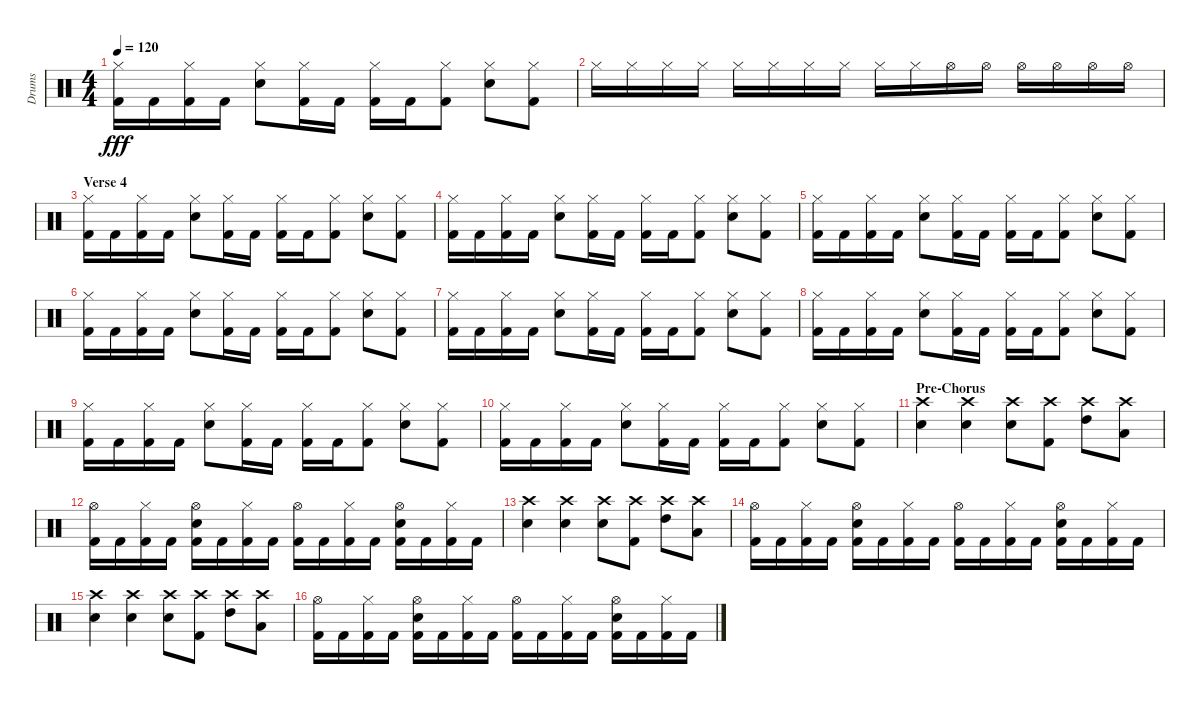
\track ("Drums" "Drums") {instrument percussion}
\staff {score}
\articulation defaults
\ts (4 4)
\tempo 120
\clef neutral
\ks c
("Hi-Hat (closed)" "Kick (hit) 2").16{dy fff} "Kick (hit) 2".16 ("Hi-Hat (closed)" "Kick (hit) 2").16 "Kick (hit) 2".16 ("Hi-Hat (closed)" "Electric Snare (hit)").8 ("Hi-Hat (closed)" "Kick (hit) 2").16 "Kick (hit) 2".16 ("Hi-Hat (closed)" "Kick (hit) 2").16 "Kick (hit) 2".16 ("Hi-Hat (closed)" "Kick (hit) 2").8 ("Hi-Hat (closed)" "Electric Snare (hit)").8 ("Hi-Hat (closed)" "Kick (hit) 2").8 |
"Hi-Hat (closed)".16 "Hi-Hat (closed)".16 "Hi-Hat (closed)".16 "Hi-Hat (closed)".16 "Hi-Hat (closed)".16 "Hi-Hat (closed)".16 "Hi-Hat (closed)".16 "Hi-Hat (closed)".16 "Hi-Hat (closed)".16 "Hi-Hat (closed)".16 "Hi-Hat (open)".16 "Hi-Hat (open)".16 "Hi-Hat (open)".16 "Hi-Hat (open)".16 "Hi-Hat (open)".16 "Hi-Hat (open)".16 |
\section ("" "Verse 4")
("Hi-Hat (closed)" "Kick (hit) 2").16 "Kick (hit) 2".16 ("Hi-Hat (closed)" "Kick (hit) 2").16 "Kick (hit) 2".16 ("Hi-Hat (closed)" "Electric Snare (hit)").8 ("Hi-Hat (closed)" "Kick (hit) 2").16 "Kick (hit) 2".16 ("Hi-Hat (closed)" "Kick (hit) 2").16 "Kick (hit) 2".16 ("Hi-Hat (closed)" "Kick (hit) 2").8 ("Hi-Hat (closed)" "Electric Snare (hit)").8 ("Hi-Hat (closed)" "Kick (hit) 2").8 |
("Hi-Hat (closed)" "Kick (hit) 2").16 "Kick (hit) 2".16 ("Hi-Hat (closed)" "Kick (hit) 2").16 "Kick (hit) 2".16 ("Hi-Hat (closed)" "Electric Snare (hit)").8 ("Hi-Hat (closed)" "Kick (hit) 2").16 "Kick (hit) 2".16 ("Hi-Hat (closed)" "Kick (hit) 2").16 "Kick (hit) 2".16 ("Hi-Hat (closed)" "Kick (hit) 2").8 ("Hi-Hat (closed)" "Electric Snare (hit)").8 ("Hi-Hat (closed)" "Kick (hit) 2").8 |
("Hi-Hat (closed)" "Kick (hit) 2").16 "Kick (hit) 2".16 ("Hi-Hat (closed)" "Kick (hit) 2").16 "Kick (hit) 2".16 ("Hi-Hat (closed)" "Electric Snare (hit)").8 ("Hi-Hat (closed)" "Kick (hit) 2").16 "Kick (hit) 2".16 ("Hi-Hat (closed)" "Kick (hit) 2").16 "Kick (hit) 2".16 ("Hi-Hat (closed)" "Kick (hit) 2").8 ("Hi-Hat (closed)" "Electric Snare (hit)").8 ("Hi-Hat (closed)" "Kick (hit) 2").8 |
("Hi-Hat (closed)" "Kick (hit) 2").16 "Kick (hit) 2".16 ("Hi-Hat (closed)" "Kick (hit) 2").16 "Kick (hit) 2".16 ("Hi-Hat (closed)" "Electric Snare (hit)").8 ("Hi-Hat (closed)" "Kick (hit) 2").16 "Kick (hit) 2".16 ("Hi-Hat (closed)" "Kick (hit) 2").16 "Kick (hit) 2".16 ("Hi-Hat (closed)" "Kick (hit) 2").8 ("Hi-Hat (closed)" "Electric Snare (hit)").8 ("Hi-Hat (closed)" "Kick (hit) 2").8 |
("Hi-Hat (closed)" "Kick (hit) 2").16 "Kick (hit) 2".16 ("Hi-Hat (closed)" "Kick (hit) 2").16 "Kick (hit) 2".16 ("Hi-Hat (closed)" "Electric Snare (hit)").8 ("Hi-Hat (closed)" "Kick (hit) 2").16 "Kick (hit) 2".16 ("Hi-Hat (closed)" "Kick (hit) 2").16 "Kick (hit) 2".16 ("Hi-Hat (closed)" "Kick (hit) 2").8 ("Hi-Hat (closed)" "Electric Snare (hit)").8 ("Hi-Hat (closed)" "Kick (hit) 2").8 |
("Hi-Hat (closed)" "Kick (hit) 2").16 "Kick (hit) 2".16 ("Hi-Hat (closed)" "Kick (hit) 2").16 "Kick (hit) 2".16 ("Hi-Hat (closed)" "Electric Snare (hit)").8 ("Hi-Hat (closed)" "Kick (hit) 2").16 "Kick (hit) 2".16 ("Hi-Hat (closed)" "Kick (hit) 2").16 "Kick (hit) 2".16 ("Hi-Hat (closed)" "Kick (hit) 2").8 ("Hi-Hat (closed)" "Electric Snare (hit)").8 ("Hi-Hat (closed)" "Kick (hit) 2").8 |
("Hi-Hat (closed)" "Kick (hit) 2").16 "Kick (hit) 2".16 ("Hi-Hat (closed)" "Kick (hit) 2").16 "Kick (hit) 2".16 ("Hi-Hat (closed)" "Electric Snare (hit)").8 ("Hi-Hat (closed)" "Kick (hit) 2").16 "Kick (hit) 2".16 ("Hi-Hat (closed)" "Kick (hit) 2").16 "Kick (hit) 2".16 ("Hi-Hat (closed)" "Kick (hit) 2").8 ("Hi-Hat (closed)" "Electric Snare (hit)").8 ("Hi-Hat (closed)" "Kick (hit) 2").8 |
("Hi-Hat (closed)" "Kick (hit) 2").16 "Kick (hit) 2".16 ("Hi-Hat (closed)" "Kick (hit) 2").16 "Kick (hit) 2".16 ("Hi-Hat (closed)" "Electric Snare (hit)").8 ("Hi-Hat (closed)" "Kick (hit) 2").16 "Kick (hit) 2".16 ("Hi-Hat (closed)" "Kick (hit) 2").16 "Kick (hit) 2".16 ("Hi-Hat (closed)" "Kick (hit) 2").8 ("Hi-Hat (closed)" "Electric Snare (hit)").8 ("Hi-Hat (closed)" "Kick (hit) 2").8 |
\section ("" "Pre-Chorus")
("Crash high (hit)" "Electric Snare (hit)").4 ("Crash high (hit)" "Electric Snare (hit)").4 ("Crash high (hit)" "Electric Snare (hit)").8 ("Crash high (hit)" "Kick (hit) 2").8 ("Crash high (hit)" "High Tom (hit)").8 ("Crash high (hit)" "Low Tom (hit)").8 |
("Hi-Hat (open)" "Kick (hit) 2").16 "Kick (hit) 2".16 ("Hi-Hat (closed)" "Kick (hit) 2").16 "Kick (hit) 2".16 ("Hi-Hat (open)" "Electric Snare (hit)" "Kick (hit) 2").16 "Kick (hit) 2".16 ("Hi-Hat (closed)" "Kick (hit) 2").16 "Kick (hit) 2".16 ("Hi-Hat (open)" "Kick (hit) 2").16 "Kick (hit) 2".16 ("Hi-Hat (closed)" "Kick (hit) 2").16 "Kick (hit) 2".16 ("Hi-Hat (open)" "Electric Snare (hit)" "Kick (hit) 2").16 "Kick (hit) 2".16 ("Hi-Hat (closed)" "Kick (hit) 2").16 "Kick (hit) 2".16 |
("Crash high (hit)" "Electric Snare (hit)").4 ("Crash high (hit)" "Electric Snare (hit)").4 ("Crash high (hit)" "Electric Snare (hit)").8 ("Crash high (hit)" "Kick (hit) 2").8 ("Crash high (hit)" "High Tom (hit)").8 ("Crash high (hit)" "Low Tom (hit)").8 |
("Hi-Hat (open)" "Kick (hit) 2").16 "Kick (hit) 2".16 ("Hi-Hat (closed)" "Kick (hit) 2").16 "Kick (hit) 2".16 ("Hi-Hat (open)" "Electric Snare (hit)" "Kick (hit) 2").16 "Kick (hit) 2".16 ("Hi-Hat (closed)" "Kick (hit) 2").16 "Kick (hit) 2".16 ("Hi-Hat (open)" "Kick (hit) 2").16 "Kick (hit) 2".16 ("Hi-Hat (closed)" "Kick (hit) 2").16 "Kick (hit) 2".16 ("Hi-Hat (open)" "Electric Snare (hit)" "Kick (hit) 2").16 "Kick (hit) 2".16 ("Hi-Hat (closed)" "Kick (hit) 2").16 "Kick (hit) 2".16 |
("Crash high (hit)" "Electric Snare (hit)").4 ("Crash high (hit)" "Electric Snare (hit)").4 ("Crash high (hit)" "Electric Snare (hit)").8 ("Crash high (hit)" "Kick (hit) 2").8 ("Crash high (hit)" "High Tom (hit)").8 ("Crash high (hit)" "Low Tom (hit)").8 |
("Hi-Hat (open)" "Kick (hit) 2").16 "Kick (hit) 2".16 ("Hi-Hat (closed)" "Kick (hit) 2").16 "Kick (hit) 2".16 ("Hi-Hat (open)" "Electric Snare (hit)" "Kick (hit) 2").16 "Kick (hit) 2".16 ("Hi-Hat (closed)" "Kick (hit) 2").16 "Kick (hit) 2".16 ("Hi-Hat (open)" "Kick (hit) 2").16 "Kick (hit) 2".16 ("Hi-Hat (closed)" "Kick (hit) 2").16 "Kick (hit) 2".16 ("Hi-Hat (open)" "Electric Snare (hit)" "Kick (hit) 2").16 "Kick (hit) 2".16 ("Hi-Hat (closed)" "Kick (hit) 2").16 "Kick (hit) 2".16
